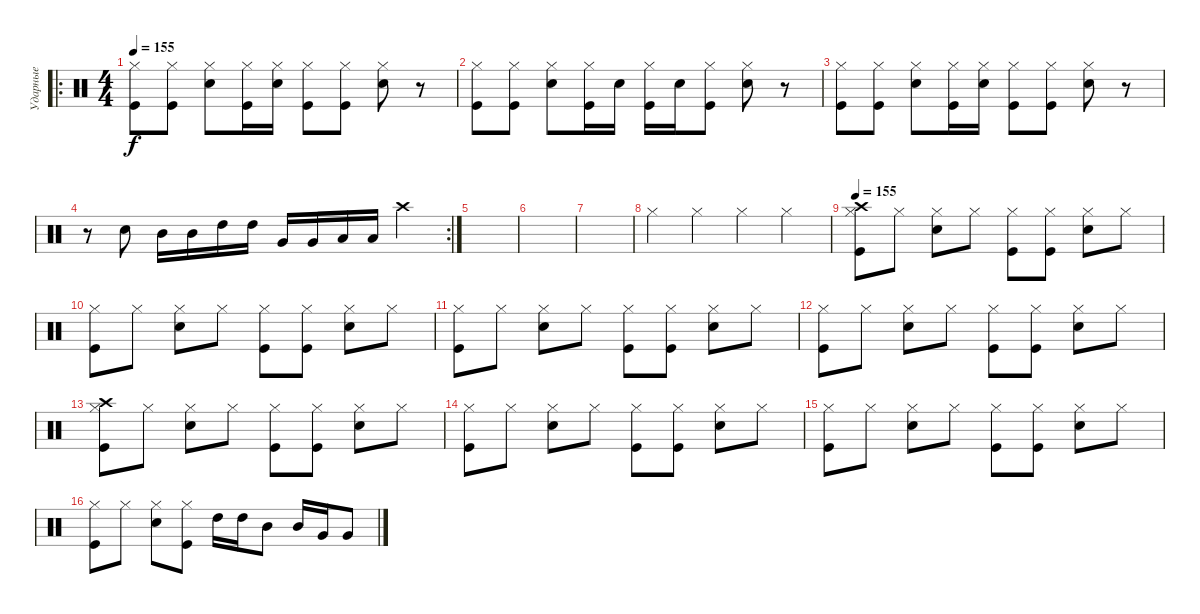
\track ("Ударные" "Ударные") {instrument percussion}
\staff {score}
\articulation defaults
\ro
\ts (4 4)
\tempo 155
\clef neutral
\ks c
("Hi-Hat (closed)" "Kick (hit)").8{dy f} ("Hi-Hat (closed)" "Kick (hit)").8 ("Hi-Hat (closed)" "Snare (hit) 2").8 ("Hi-Hat (closed)" "Kick (hit)").16 ("Hi-Hat (closed)" "Snare (hit) 2").16 ("Hi-Hat (closed)" "Kick (hit)").8 ("Hi-Hat (closed)" "Kick (hit)").8 ("Hi-Hat (closed)" "Snare (hit) 2").8 r.8 |
("Hi-Hat (closed)" "Kick (hit)").8 ("Hi-Hat (closed)" "Kick (hit)").8 ("Hi-Hat (closed)" "Snare (hit) 2").8 ("Hi-Hat (closed)" "Kick (hit)").16 "Snare (hit) 2".16 ("Hi-Hat (closed)" "Kick (hit)").16 "Snare (hit) 2".16 ("Hi-Hat (closed)" "Kick (hit)").8 ("Hi-Hat (closed)" "Snare (hit) 2").8 r.8 |
("Hi-Hat (closed)" "Kick (hit)").8 ("Hi-Hat (closed)" "Kick (hit)").8 ("Hi-Hat (closed)" "Snare (hit) 2").8 ("Hi-Hat (closed)" "Kick (hit)").16 ("Hi-Hat (closed)" "Snare (hit) 2").16 ("Hi-Hat (closed)" "Kick (hit)").8 ("Hi-Hat (closed)" "Kick (hit)").8 ("Hi-Hat (closed)" "Snare (hit) 2").8 r.8 |
\rc 2
r.8 "Snare (hit) 2".8 "Mid Tom (hit)".16 "Mid Tom (hit)".16 "High Tom (hit)".16 "High Tom (hit)".16 "Very Low Tom (hit)".16 "Very Low Tom (hit)".16 "Low Floor Tom (hit)".16 "Low Floor Tom (hit)".16 "Crash high (hit)".4 |
|
|
|
"Hi-Hat (closed)".4 "Hi-Hat (closed)".4 "Hi-Hat (closed)".4 "Hi-Hat (closed)".4 |
\tempo 155
("Crash high (hit)" "Hi-Hat (closed)" "Kick (hit)").8 "Hi-Hat (closed)".8 ("Hi-Hat (closed)" "Snare (hit) 2").8 "Hi-Hat (closed)".8 ("Hi-Hat (closed)" "Kick (hit)").8 ("Hi-Hat (closed)" "Kick (hit)").8 ("Hi-Hat (closed)" "Snare (hit) 2").8 "Hi-Hat (closed)".8 |
("Hi-Hat (closed)" "Kick (hit)").8 "Hi-Hat (closed)".8 ("Hi-Hat (closed)" "Snare (hit) 2").8 "Hi-Hat (closed)".8 ("Hi-Hat (closed)" "Kick (hit)").8 ("Hi-Hat (closed)" "Kick (hit)").8 ("Hi-Hat (closed)" "Snare (hit) 2").8 "Hi-Hat (closed)".8 |
("Hi-Hat (closed)" "Kick (hit)").8 "Hi-Hat (closed)".8 ("Hi-Hat (closed)" "Snare (hit) 2").8 "Hi-Hat (closed)".8 ("Hi-Hat (closed)" "Kick (hit)").8 ("Hi-Hat (closed)" "Kick (hit)").8 ("Hi-Hat (closed)" "Snare (hit) 2").8 "Hi-Hat (closed)".8 |
("Hi-Hat (closed)" "Kick (hit)").8 "Hi-Hat (closed)".8 ("Hi-Hat (closed)" "Snare (hit) 2").8 "Hi-Hat (closed)".8 ("Hi-Hat (closed)" "Kick (hit)").8 ("Hi-Hat (closed)" "Kick (hit)").8 ("Hi-Hat (closed)" "Snare (hit) 2").8 "Hi-Hat (closed)".8 |
("Crash high (hit)" "Hi-Hat (closed)" "Kick (hit)").8 "Hi-Hat (closed)".8 ("Hi-Hat (closed)" "Snare (hit) 2").8 "Hi-Hat (closed)".8 ("Hi-Hat (closed)" "Kick (hit)").8 ("Hi-Hat (closed)" "Kick (hit)").8 ("Hi-Hat (closed)" "Snare (hit) 2").8 "Hi-Hat (closed)".8 |
("Hi-Hat (closed)" "Kick (hit)").8 "Hi-Hat (closed)".8 ("Hi-Hat (closed)" "Snare (hit) 2").8 "Hi-Hat (closed)".8 ("Hi-Hat (closed)" "Kick (hit)").8 ("Hi-Hat (closed)" "Kick (hit)").8 ("Hi-Hat (closed)" "Snare (hit) 2").8 "Hi-Hat (closed)".8 |
("Hi-Hat (closed)" "Kick (hit)").8 "Hi-Hat (closed)".8 ("Hi-Hat (closed)" "Snare (hit) 2").8 "Hi-Hat (closed)".8 ("Hi-Hat (closed)" "Kick (hit)").8 ("Hi-Hat (closed)" "Kick (hit)").8 ("Hi-Hat (closed)" "Snare (hit) 2").8 "Hi-Hat (closed)".8 |
("Hi-Hat (closed)" "Kick (hit)").8 "Hi-Hat (closed)".8 ("Hi-Hat (closed)" "Snare (hit) 2").8 ("Hi-Hat (closed)" "Kick (hit)").8 "High Tom (hit)".16 "High Tom (hit)".16 "Mid Tom (hit)".8 "Mid Tom (hit)".16 "Very Low Tom (hit)".16 "Very Low Tom (hit)".8
